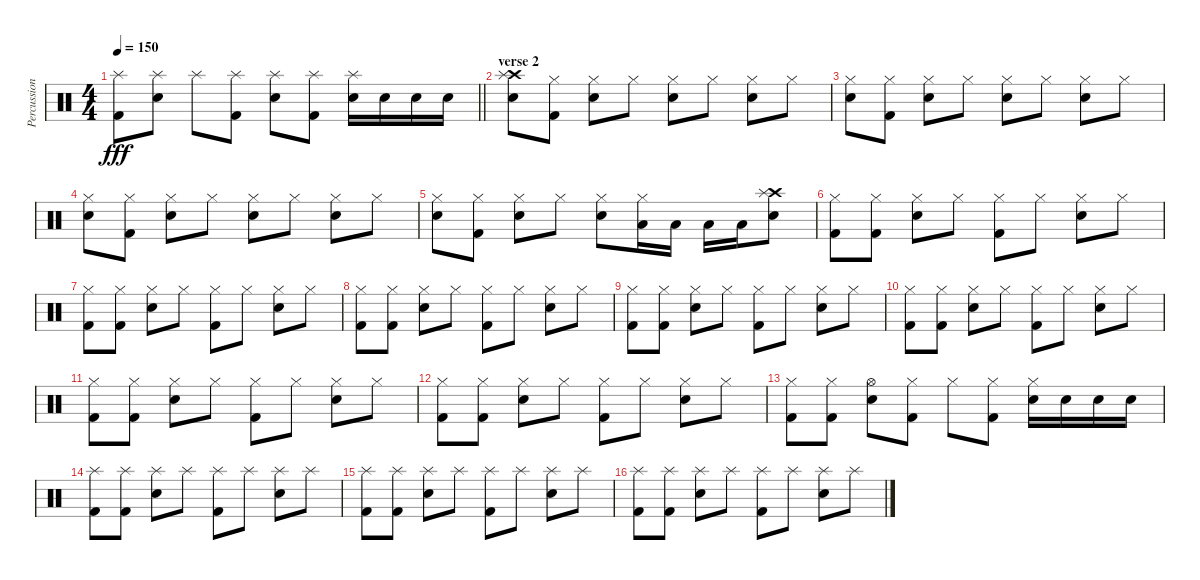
\track ("Percussion" "Percussion") {instrument percussion}
\staff {score}
\articulation defaults
\ts (4 4)
\tempo 150
\clef neutral
\barLineRight lightlight
\ks c
("Splash (hit)" "Kick (hit) 2").8{dy fff} ("Splash (hit)" "Electric Snare (hit)").8 "Splash (hit)".8 ("Splash (hit)" "Kick (hit) 2").8 ("Splash (hit)" "Electric Snare (hit)").8 ("Splash (hit)" "Kick (hit) 2").8 ("Splash (hit)" "Electric Snare (hit)").16 "Electric Snare (hit)".16 "Electric Snare (hit)".16 "Electric Snare (hit)".16 |
\section ("" "verse 2")
("Crash high (hit)" "Electric Snare (hit)" "Splash (hit)").8 ("Hi-Hat (closed)" "Kick (hit) 2").8 ("Hi-Hat (closed)" "Electric Snare (hit)").8 "Hi-Hat (closed)".8 ("Hi-Hat (closed)" "Electric Snare (hit)").8 "Hi-Hat (closed)".8 ("Hi-Hat (closed)" "Electric Snare (hit)").8 "Hi-Hat (closed)".8 |
("Hi-Hat (closed)" "Electric Snare (hit)").8 ("Hi-Hat (closed)" "Kick (hit) 2").8 ("Hi-Hat (closed)" "Electric Snare (hit)").8 "Hi-Hat (closed)".8 ("Hi-Hat (closed)" "Electric Snare (hit)").8 "Hi-Hat (closed)".8 ("Hi-Hat (closed)" "Electric Snare (hit)").8 "Hi-Hat (closed)".8 |
("Hi-Hat (closed)" "Electric Snare (hit)").8 ("Hi-Hat (closed)" "Kick (hit) 2").8 ("Hi-Hat (closed)" "Electric Snare (hit)").8 "Hi-Hat (closed)".8 ("Hi-Hat (closed)" "Electric Snare (hit)").8 "Hi-Hat (closed)".8 ("Hi-Hat (closed)" "Electric Snare (hit)").8 "Hi-Hat (closed)".8 |
("Hi-Hat (closed)" "Electric Snare (hit)").8 ("Hi-Hat (closed)" "Kick (hit) 2").8 ("Hi-Hat (closed)" "Electric Snare (hit)").8 "Hi-Hat (closed)".8 ("Hi-Hat (closed)" "Electric Snare (hit)").8 ("Hi-Hat (closed)" "Low Floor Tom (hit)").16 "Low Floor Tom (hit)".16 "Low Floor Tom (hit)".16 "Low Floor Tom (hit)".16 ("Crash high (hit)" "Splash (hit)" "Electric Snare (hit)").8 |
("Hi-Hat (closed)" "Kick (hit) 2").8 ("Hi-Hat (closed)" "Kick (hit) 2").8 ("Hi-Hat (closed)" "Electric Snare (hit)").8 "Hi-Hat (closed)".8 ("Hi-Hat (closed)" "Kick (hit) 2").8 "Hi-Hat (closed)".8 ("Hi-Hat (closed)" "Electric Snare (hit)").8 "Hi-Hat (closed)".8 |
("Hi-Hat (closed)" "Kick (hit) 2").8 ("Hi-Hat (closed)" "Kick (hit) 2").8 ("Hi-Hat (closed)" "Electric Snare (hit)").8 "Hi-Hat (closed)".8 ("Hi-Hat (closed)" "Kick (hit) 2").8 "Hi-Hat (closed)".8 ("Hi-Hat (closed)" "Electric Snare (hit)").8 "Hi-Hat (closed)".8 |
("Hi-Hat (closed)" "Kick (hit) 2").8 ("Hi-Hat (closed)" "Kick (hit) 2").8 ("Hi-Hat (closed)" "Electric Snare (hit)").8 "Hi-Hat (closed)".8 ("Hi-Hat (closed)" "Kick (hit) 2").8 "Hi-Hat (closed)".8 ("Hi-Hat (closed)" "Electric Snare (hit)").8 "Hi-Hat (closed)".8 |
("Hi-Hat (closed)" "Kick (hit) 2").8 ("Hi-Hat (closed)" "Kick (hit) 2").8 ("Hi-Hat (closed)" "Electric Snare (hit)").8 "Hi-Hat (closed)".8 ("Hi-Hat (closed)" "Kick (hit) 2").8 "Hi-Hat (closed)".8 ("Hi-Hat (closed)" "Electric Snare (hit)").8 "Hi-Hat (closed)".8 |
("Hi-Hat (closed)" "Kick (hit) 2").8 ("Hi-Hat (closed)" "Kick (hit) 2").8 ("Hi-Hat (closed)" "Electric Snare (hit)").8 "Hi-Hat (closed)".8 ("Hi-Hat (closed)" "Kick (hit) 2").8 "Hi-Hat (closed)".8 ("Hi-Hat (closed)" "Electric Snare (hit)").8 "Hi-Hat (closed)".8 |
("Hi-Hat (closed)" "Kick (hit) 2").8 ("Hi-Hat (closed)" "Kick (hit) 2").8 ("Hi-Hat (closed)" "Electric Snare (hit)").8 "Hi-Hat (closed)".8 ("Hi-Hat (closed)" "Kick (hit) 2").8 "Hi-Hat (closed)".8 ("Hi-Hat (closed)" "Electric Snare (hit)").8 "Hi-Hat (closed)".8 |
("Hi-Hat (closed)" "Kick (hit) 2").8 ("Hi-Hat (closed)" "Kick (hit) 2").8 ("Hi-Hat (closed)" "Electric Snare (hit)").8 "Hi-Hat (closed)".8 ("Hi-Hat (closed)" "Kick (hit) 2").8 "Hi-Hat (closed)".8 ("Hi-Hat (closed)" "Electric Snare (hit)").8 "Hi-Hat (closed)".8 |
("Hi-Hat (closed)" "Kick (hit) 2").8 ("Hi-Hat (closed)" "Kick (hit) 2").8 ("Hi-Hat (open)" "Electric Snare (hit)").8 ("Hi-Hat (closed)" "Kick (hit) 2").8 "Hi-Hat (closed)".8 ("Hi-Hat (closed)" "Kick (hit) 2").8 ("Hi-Hat (closed)" "Electric Snare (hit)").16 "Electric Snare (hit)".16 "Electric Snare (hit)".16 "Electric Snare (hit)".16 |
("Splash (hit)" "Kick (hit) 2").8 ("Splash (hit)" "Kick (hit) 2").8 ("Splash (hit)" "Electric Snare (hit)").8 "Splash (hit)".8 ("Splash (hit)" "Kick (hit) 2").8 "Splash (hit)".8 ("Splash (hit)" "Electric Snare (hit)").8 "Splash (hit)".8 |
("Splash (hit)" "Kick (hit) 2").8 ("Splash (hit)" "Kick (hit) 2").8 ("Splash (hit)" "Electric Snare (hit)").8 "Splash (hit)".8 ("Splash (hit)" "Kick (hit) 2").8 "Splash (hit)".8 ("Splash (hit)" "Electric Snare (hit)").8 "Splash (hit)".8 |
("Splash (hit)" "Kick (hit) 2").8 ("Splash (hit)" "Kick (hit) 2").8 ("Splash (hit)" "Electric Snare (hit)").8 "Splash (hit)".8 ("Splash (hit)" "Kick (hit) 2").8 "Splash (hit)".8 ("Splash (hit)" "Electric Snare (hit)").8 "Splash (hit)".8
